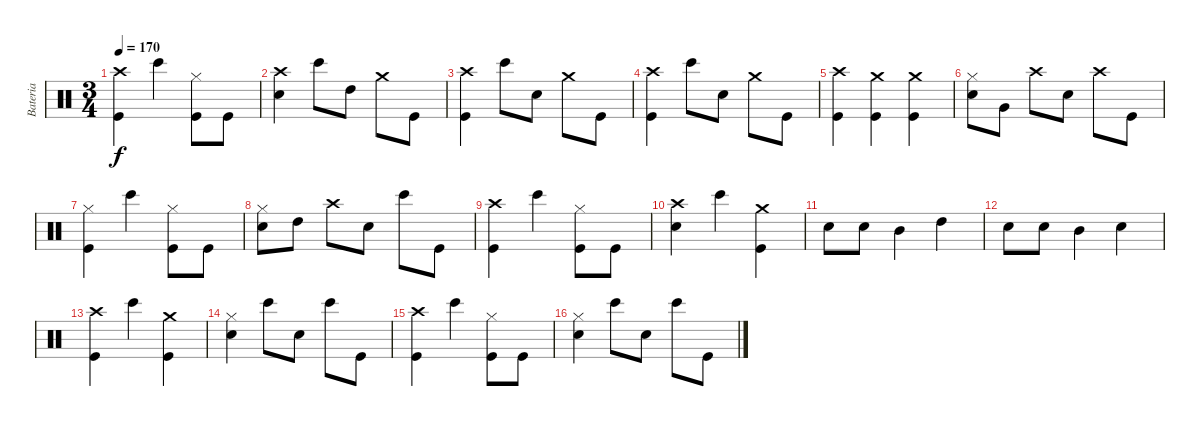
\track ("Bateria" "Bateria") {instrument percussion}
\staff {score}
\articulation defaults
\ts (3 4)
\tempo 170
\clef neutral
\ks c
("Crash high (hit)" "Kick (hit)").4{dy f} "Bongo High (hit)".4 ("Hi-Hat (closed)" "Kick (hit)").8 "Kick (hit)".8 |
("Crash high (hit)" "Snare (hit) 2").4 "Bongo High (hit)".8 "High Tom (hit)".8 "Crash medium (hit)".8 "Kick (hit)".8 |
("Crash high (hit)" "Kick (hit)").4 "Bongo High (hit)".8 "Snare (hit) 2".8 "Crash medium (hit)".8 "Kick (hit)".8 |
("Crash high (hit)" "Kick (hit)").4 "Bongo High (hit)".8 "Snare (hit) 2".8 "Crash medium (hit)".8 "Kick (hit)".8 |
("Crash high (hit)" "Kick (hit)").4 ("Crash medium (hit)" "Kick (hit)").4 ("Crash medium (hit)" "Kick (hit)").4 |
("Hi-Hat (closed)" "Snare (hit) 2").8 "Very Low Tom (hit)".8 "Crash high (hit)".8 "Snare (hit) 2".8 "Crash high (hit)".8 "Kick (hit)".8 |
("Hi-Hat (closed)" "Kick (hit)").4 "Bongo High (hit)".4 ("Hi-Hat (closed)" "Kick (hit)").8 "Kick (hit)".8 |
("Hi-Hat (closed)" "Snare (hit) 2").8 "High Tom (hit)".8 "Crash high (hit)".8 "Snare (hit) 2".8 "Bongo High (hit)".8 "Kick (hit)".8 |
("Crash high (hit)" "Kick (hit)").4 "Bongo High (hit)".4 ("Hi-Hat (closed)" "Kick (hit)").8 "Kick (hit)".8 |
("Crash high (hit)" "Snare (hit) 2").4 "Bongo High (hit)".4 ("Crash medium (hit)" "Kick (hit)").4 |
"Snare (hit) 2".8 "Snare (hit) 2".8 "Mid Tom (hit)".4 "High Tom (hit)".4 |
"Snare (hit) 2".8 "Snare (hit) 2".8 "Mid Tom (hit)".4 "Snare (hit) 2".4 |
("Crash high (hit)" "Kick (hit)").4 "Bongo High (hit)".4 ("Crash medium (hit)" "Kick (hit)").4 |
("Hi-Hat (closed)" "Snare (hit) 2").4 "Bongo High (hit)".8 "Snare (hit) 2".8 "Bongo High (hit)".8 "Kick (hit)".8 |
("Crash high (hit)" "Kick (hit)").4 "Bongo High (hit)".4 ("Hi-Hat (closed)" "Kick (hit)").8 "Kick (hit)".8 |
("Hi-Hat (closed)" "Snare (hit) 2").4 "Bongo High (hit)".8 "Snare (hit) 2".8 "Bongo High (hit)".8 "Kick (hit)".8
